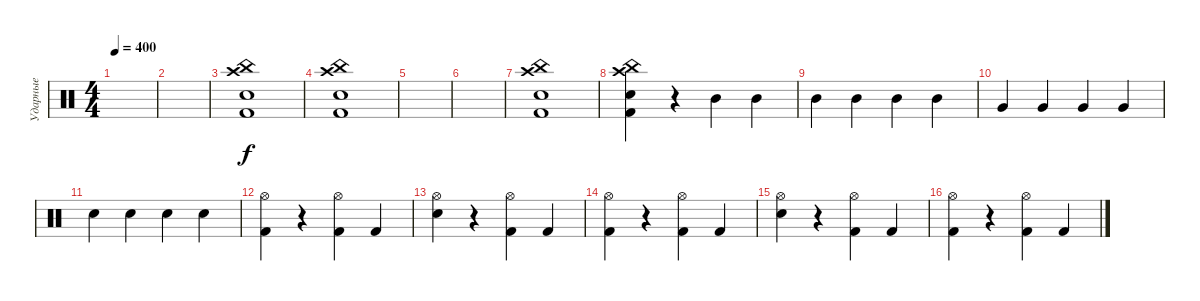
\track ("Ударные" "Ударные") {instrument percussion}
\staff {score}
\articulation defaults
\ts (4 4)
\tempo 400
\clef neutral
\ks c
|
|
("Kick (hit) 2" "Electric Snare (hit)" "Crash high (hit)" "China (hit)").1 |
("Kick (hit) 2" "Electric Snare (hit)" "Crash high (hit)" "China (hit)").1 |
|
|
("Kick (hit) 2" "Electric Snare (hit)" "Crash high (hit)" "China (hit)").1 |
("Kick (hit) 2" "Electric Snare (hit)" "Crash high (hit)" "China (hit)").4 r.4 "Mid Tom (hit)".4 "Mid Tom (hit)".4 |
"Mid Tom (hit)".4 "Mid Tom (hit)".4 "Mid Tom (hit)".4 "Mid Tom (hit)".4 |
"Very Low Tom (hit)".4 "Very Low Tom (hit)".4 "Very Low Tom (hit)".4 "Very Low Tom (hit)".4 |
"Snare (hit) 2".4 "Snare (hit) 2".4 "Snare (hit) 2".4 "Snare (hit) 2".4 |
("Kick (hit) 2" "Hi-Hat (open)").4 r.4 ("Kick (hit) 2" "Hi-Hat (open)").4 "Kick (hit) 2".4 |
("Electric Snare (hit)" "Hi-Hat (open)").4 r.4 ("Kick (hit) 2" "Hi-Hat (open)").4 "Kick (hit) 2".4 |
("Kick (hit) 2" "Hi-Hat (open)").4 r.4 ("Kick (hit) 2" "Hi-Hat (open)").4 "Kick (hit) 2".4 |
("Electric Snare (hit)" "Hi-Hat (open)").4 r.4 ("Kick (hit) 2" "Hi-Hat (open)").4 "Kick (hit) 2".4 |
("Kick (hit) 2" "Hi-Hat (open)").4 r.4 ("Kick (hit) 2" "Hi-Hat (open)").4 "Kick (hit) 2".4
